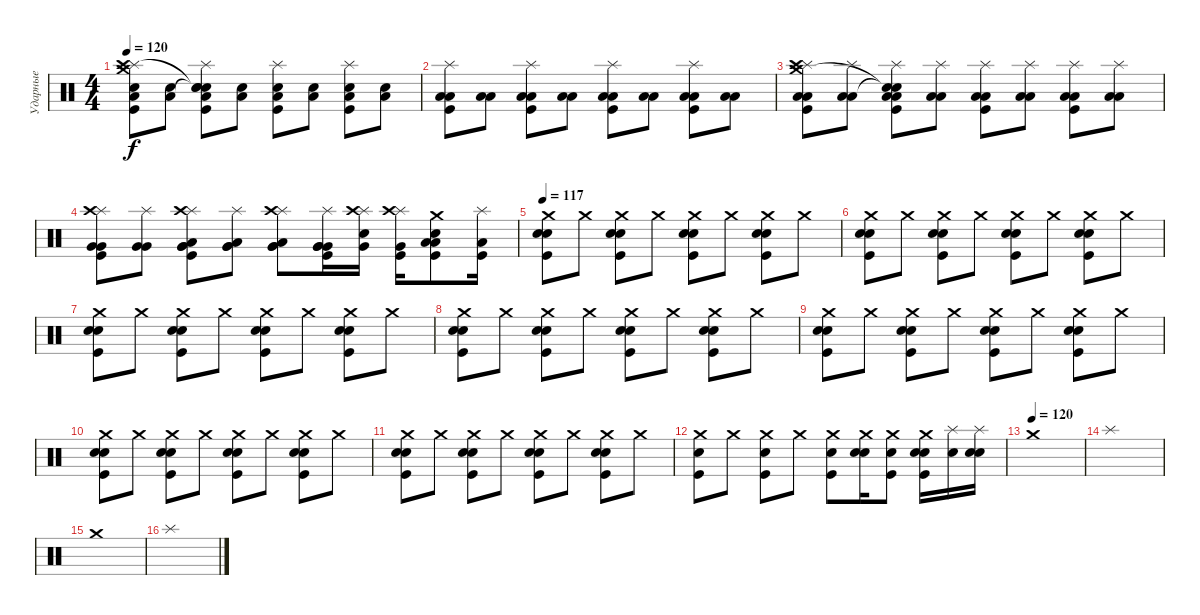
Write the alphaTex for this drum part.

\track ("Ударные" "Ударные") {instrument percussion}
\staff {score}
\articulation defaults
\ts (4 4)
\tempo 120
\clef neutral
\ks c
("Splash (hit)" "Crash medium (hit)" "Electric Snare (hit)" "Low Floor Tom (hit)" "Crash high (hit)" "Kick (hit)").8{dy f} ("Electric Snare (hit)" "Low Floor Tom (hit)").8{volume 8} ("Splash (hit)" "Snare (hit)"{t} "Electric Snare (hit)" "Low Floor Tom (hit)" "Snare (hit)"{t} "Kick (hit)").8{volume 9} ("Electric Snare (hit)" "Low Floor Tom (hit)").8 ("Splash (hit)" "Electric Snare (hit)" "Low Floor Tom (hit)" "Kick (hit)").8{volume 10} ("Electric Snare (hit)" "Low Floor Tom (hit)").8 ("Splash (hit)" "Electric Snare (hit)" "Low Floor Tom (hit)" "Kick (hit)").8{volume 11} ("Electric Snare (hit)" "Low Floor Tom (hit)").8 |
("Splash (hit)" "Low Floor Tom (hit)" "Low Floor Tom (hit)" "Kick (hit)").8{volume 12} ("Low Floor Tom (hit)" "Low Floor Tom (hit)").8 ("Splash (hit)" "Low Floor Tom (hit)" "Low Floor Tom (hit)" "Kick (hit)").8{volume 13} ("Low Floor Tom (hit)" "Low Floor Tom (hit)").8 ("Splash (hit)" "Low Floor Tom (hit)" "Low Floor Tom (hit)" "Kick (hit)").8{volume 16} ("Low Floor Tom (hit)" "Low Floor Tom (hit)").8 ("Splash (hit)" "Low Floor Tom (hit)" "Low Floor Tom (hit)" "Kick (hit)").8 ("Low Floor Tom (hit)" "Low Floor Tom (hit)").8 |
("Splash (hit)" "Crash high (hit)" "Low Floor Tom (hit)" "Low Floor Tom (hit)" "Crash medium (hit)" "Kick (hit)").8 ("Splash (hit)" "Low Floor Tom (hit)" "Low Floor Tom (hit)").8{volume 10} ("Splash (hit)" "Snare (hit)"{t} "Low Floor Tom (hit)" "Low Floor Tom (hit)" "Snare (hit)"{t} "Kick (hit)").8{volume 11} ("Splash (hit)" "Low Floor Tom (hit)" "Low Floor Tom (hit)").8 ("Splash (hit)" "Low Floor Tom (hit)" "Low Floor Tom (hit)" "Kick (hit)").8{volume 12} ("Splash (hit)" "Low Floor Tom (hit)" "Low Floor Tom (hit)").8 ("Splash (hit)" "Low Floor Tom (hit)" "Low Floor Tom (hit)" "Kick (hit)").8{volume 13} ("Splash (hit)" "Low Floor Tom (hit)" "Low Floor Tom (hit)").8 |
("Splash (hit)" "Crash high (hit)" "Very Low Tom (hit)" "Very Low Tom (hit)" "Kick (hit)").8{volume 15} ("Splash (hit)" "Very Low Tom (hit)" "Very Low Tom (hit)").8 ("Splash (hit)" "Crash high (hit)" "Very Low Tom (hit)" "Very Low Tom (hit)" "Low Floor Tom (hit)" "Kick (hit)").8{volume 16} ("Splash (hit)" "Very Low Tom (hit)" "Very Low Tom (hit)" "Low Floor Tom (hit)").8 ("Splash (hit)" "Crash high (hit)" "Very Low Tom (hit)" "Very Low Tom (hit)" "Low Floor Tom (hit)").8 ("Splash (hit)" "Very Low Tom (hit)" "Very Low Tom (hit)" "Very Low Tom (hit)" "Kick (hit)").16 ("Splash (hit)" "Crash high (hit)" "Snare (hit) 2" "Very Low Tom (hit)").16 ("Splash (hit)" "Crash high (hit)" "Very Low Tom (hit)" "Kick (hit)").16 ("Crash medium (hit)" "Low Floor Tom (hit)" "Low Floor Tom (hit)" "Snare (hit) 2" "Kick (hit)").8 ("Splash (hit)" "Low Floor Tom (hit)" "Kick (hit)").16 |
\tempo 117
("Crash medium (hit)" "Snare (hit) 2" "Snare (hit) 2" "Kick (hit)").8 "Crash medium (hit)".8 ("Crash medium (hit)" "Snare (hit) 2" "Snare (hit) 2" "Kick (hit)").8 "Crash medium (hit)".8 ("Crash medium (hit)" "Snare (hit) 2" "Snare (hit) 2" "Kick (hit)").8 "Crash medium (hit)".8 ("Crash medium (hit)" "Snare (hit) 2" "Snare (hit) 2" "Kick (hit)").8 "Crash medium (hit)".8 |
("Crash medium (hit)" "Snare (hit) 2" "Snare (hit) 2" "Kick (hit)").8 "Crash medium (hit)".8 ("Crash medium (hit)" "Snare (hit) 2" "Snare (hit) 2" "Kick (hit)").8 "Crash medium (hit)".8 ("Crash medium (hit)" "Snare (hit) 2" "Snare (hit) 2" "Kick (hit)").8 "Crash medium (hit)".8 ("Crash medium (hit)" "Snare (hit) 2" "Snare (hit) 2" "Kick (hit)").8 "Crash medium (hit)".8 |
("Crash medium (hit)" "Snare (hit) 2" "Electric Snare (hit)" "Kick (hit)").8 "Crash medium (hit)".8 ("Crash medium (hit)" "Snare (hit) 2" "Electric Snare (hit)" "Kick (hit)").8 "Crash medium (hit)".8 ("Crash medium (hit)" "Snare (hit) 2" "Electric Snare (hit)" "Kick (hit)").8 "Crash medium (hit)".8 ("Crash medium (hit)" "Snare (hit) 2" "Electric Snare (hit)" "Kick (hit)").8 "Crash medium (hit)".8 |
("Crash medium (hit)" "Snare (hit) 2" "Electric Snare (hit)" "Kick (hit)").8 "Crash medium (hit)".8 ("Crash medium (hit)" "Snare (hit) 2" "Electric Snare (hit)" "Kick (hit)").8 "Crash medium (hit)".8 ("Crash medium (hit)" "Snare (hit) 2" "Electric Snare (hit)" "Kick (hit)").8 "Crash medium (hit)".8 ("Crash medium (hit)" "Snare (hit) 2" "Electric Snare (hit)" "Kick (hit)").8 "Crash medium (hit)".8 |
("Crash medium (hit)" "Snare (hit) 2" "Electric Snare (hit)" "Kick (hit)").8 "Crash medium (hit)".8 ("Crash medium (hit)" "Snare (hit) 2" "Electric Snare (hit)" "Kick (hit)").8 "Crash medium (hit)".8 ("Crash medium (hit)" "Snare (hit) 2" "Electric Snare (hit)" "Kick (hit)").8 "Crash medium (hit)".8 ("Crash medium (hit)" "Snare (hit) 2" "Electric Snare (hit)" "Kick (hit)").8 "Crash medium (hit)".8 |
("Crash medium (hit)" "Snare (hit) 2" "Electric Snare (hit)" "Kick (hit)").8 "Crash medium (hit)".8 ("Crash medium (hit)" "Snare (hit) 2" "Electric Snare (hit)" "Kick (hit)").8 "Crash medium (hit)".8 ("Crash medium (hit)" "Snare (hit) 2" "Electric Snare (hit)" "Kick (hit)").8 "Crash medium (hit)".8 ("Crash medium (hit)" "Snare (hit) 2" "Electric Snare (hit)" "Kick (hit)").8 "Crash medium (hit)".8 |
("Crash medium (hit)" "Snare (hit) 2" "Electric Snare (hit)" "Kick (hit)").8 "Crash medium (hit)".8 ("Crash medium (hit)" "Snare (hit) 2" "Electric Snare (hit)" "Kick (hit)").8 "Crash medium (hit)".8 ("Crash medium (hit)" "Snare (hit) 2" "Electric Snare (hit)" "Kick (hit)").8 "Crash medium (hit)".8 ("Crash medium (hit)" "Snare (hit) 2" "Electric Snare (hit)" "Kick (hit)").8 "Crash medium (hit)".8 |
("Crash medium (hit)" "Electric Snare (hit)" "Kick (hit)").8 "Crash medium (hit)".8 ("Crash medium (hit)" "Electric Snare (hit)" "Kick (hit)").8 "Crash medium (hit)".8 ("Crash medium (hit)" "Electric Snare (hit)" "Kick (hit)").8 ("Crash medium (hit)" "Snare (hit) 2" "Snare (hit) 2").16 ("Crash medium (hit)" "Electric Snare (hit)" "Kick (hit)").8 ("Crash medium (hit)" "Snare (hit) 2" "Snare (hit) 2" "Kick (hit)").16 ("Splash (hit)" "Electric Snare (hit)").16 ("Splash (hit)" "Snare (hit) 2" "Snare (hit) 2").16 |
\tempo (120)
"Crash medium (hit)".1 |
"Splash (hit)".1 |
"Crash medium (hit)".1 |
"Splash (hit)".1
